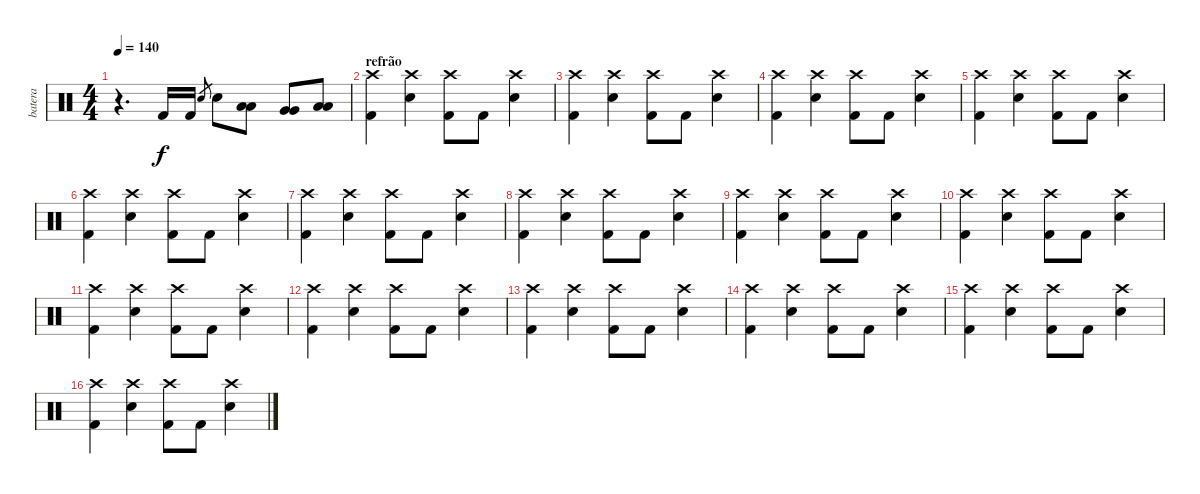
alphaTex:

\track ("batera" "batera") {instrument percussion}
\staff {score}
\articulation defaults
\ts (4 4)
\tempo 140
\clef neutral
\ks c
r.4{d dy f} "Kick (hit) 2".16 "Kick (hit) 2".16 "Snare (hit) 2".8{gr} "Snare (hit) 2".8 ("Low Tom (hit)" "Low Tom (hit)").8 ("Very Low Tom (hit)" "Very Low Tom (hit)").8 ("Low Floor Tom (hit)" "Low Floor Tom (hit)").8 |
\section ("" "refrão")
("Crash high (hit)" "Kick (hit) 2").4 ("Crash high (hit)" "Snare (hit) 2").4 ("Crash high (hit)" "Kick (hit) 2").8 "Kick (hit) 2".8 ("Crash high (hit)" "Snare (hit) 2").4 |
("Crash high (hit)" "Kick (hit) 2").4 ("Crash high (hit)" "Snare (hit) 2").4 ("Crash high (hit)" "Kick (hit) 2").8 "Kick (hit) 2".8 ("Crash high (hit)" "Snare (hit) 2").4 |
("Crash high (hit)" "Kick (hit) 2").4 ("Crash high (hit)" "Snare (hit) 2").4 ("Crash high (hit)" "Kick (hit) 2").8 "Kick (hit) 2".8 ("Crash high (hit)" "Snare (hit) 2").4 |
("Crash high (hit)" "Kick (hit) 2").4 ("Crash high (hit)" "Snare (hit) 2").4 ("Crash high (hit)" "Kick (hit) 2").8 "Kick (hit) 2".8 ("Crash high (hit)" "Snare (hit) 2").4 |
("Crash high (hit)" "Kick (hit) 2").4 ("Crash high (hit)" "Snare (hit) 2").4 ("Crash high (hit)" "Kick (hit) 2").8 "Kick (hit) 2".8 ("Crash high (hit)" "Snare (hit) 2").4 |
("Crash high (hit)" "Kick (hit) 2").4 ("Crash high (hit)" "Snare (hit) 2").4 ("Crash high (hit)" "Kick (hit) 2").8 "Kick (hit) 2".8 ("Crash high (hit)" "Snare (hit) 2").4 |
("Crash high (hit)" "Kick (hit) 2").4 ("Crash high (hit)" "Snare (hit) 2").4 ("Crash high (hit)" "Kick (hit) 2").8 "Kick (hit) 2".8 ("Crash high (hit)" "Snare (hit) 2").4 |
("Crash high (hit)" "Kick (hit) 2").4 ("Crash high (hit)" "Snare (hit) 2").4 ("Crash high (hit)" "Kick (hit) 2").8 "Kick (hit) 2".8 ("Crash high (hit)" "Snare (hit) 2").4 |
("Crash high (hit)" "Kick (hit) 2").4 ("Crash high (hit)" "Snare (hit) 2").4 ("Crash high (hit)" "Kick (hit) 2").8 "Kick (hit) 2".8 ("Crash high (hit)" "Snare (hit) 2").4 |
("Crash high (hit)" "Kick (hit) 2").4 ("Crash high (hit)" "Snare (hit) 2").4 ("Crash high (hit)" "Kick (hit) 2").8 "Kick (hit) 2".8 ("Crash high (hit)" "Snare (hit) 2").4 |
("Crash high (hit)" "Kick (hit) 2").4 ("Crash high (hit)" "Snare (hit) 2").4 ("Crash high (hit)" "Kick (hit) 2").8 "Kick (hit) 2".8 ("Crash high (hit)" "Snare (hit) 2").4 |
("Crash high (hit)" "Kick (hit) 2").4 ("Crash high (hit)" "Snare (hit) 2").4 ("Crash high (hit)" "Kick (hit) 2").8 "Kick (hit) 2".8 ("Crash high (hit)" "Snare (hit) 2").4 |
("Crash high (hit)" "Kick (hit) 2").4 ("Crash high (hit)" "Snare (hit) 2").4 ("Crash high (hit)" "Kick (hit) 2").8 "Kick (hit) 2".8 ("Crash high (hit)" "Snare (hit) 2").4 |
("Crash high (hit)" "Kick (hit) 2").4 ("Crash high (hit)" "Snare (hit) 2").4 ("Crash high (hit)" "Kick (hit) 2").8 "Kick (hit) 2".8 ("Crash high (hit)" "Snare (hit) 2").4 |
("Crash high (hit)" "Kick (hit) 2").4 ("Crash high (hit)" "Snare (hit) 2").4 ("Crash high (hit)" "Kick (hit) 2").8 "Kick (hit) 2".8 ("Crash high (hit)" "Snare (hit) 2").4
